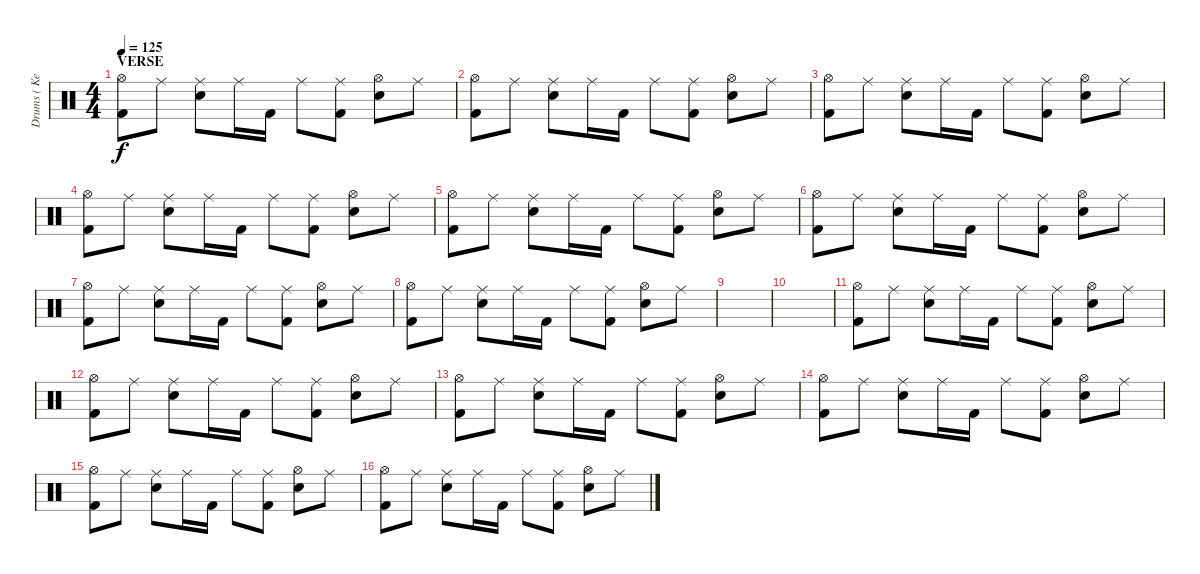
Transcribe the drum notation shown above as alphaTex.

\track ("Drums ( Ken Jay )" "Drums ( Ke") {instrument percussion}
\staff {score}
\articulation defaults
\ts (4 4)
\section ("" "VERSE")
\tempo 125
\clef neutral
\ks c
("Hi-Hat (open)" "Kick (hit) 2").8{dy f} "Ride (middle)".8 ("Ride (middle)" "Snare (hit) 2").8 "Ride (middle)".16 "Kick (hit) 2".16 "Ride (middle)".8 ("Ride (middle)" "Kick (hit) 2").8 ("Hi-Hat (open)" "Snare (hit) 2").8 "Ride (middle)".8 |
("Hi-Hat (open)" "Kick (hit) 2").8 "Ride (middle)".8 ("Ride (middle)" "Snare (hit) 2").8 "Ride (middle)".16 "Kick (hit) 2".16 "Ride (middle)".8 ("Ride (middle)" "Kick (hit) 2").8 ("Hi-Hat (open)" "Snare (hit) 2").8 "Ride (middle)".8 |
("Hi-Hat (open)" "Kick (hit) 2").8 "Ride (middle)".8 ("Ride (middle)" "Snare (hit) 2").8 "Ride (middle)".16 "Kick (hit) 2".16 "Ride (middle)".8 ("Ride (middle)" "Kick (hit) 2").8 ("Hi-Hat (open)" "Snare (hit) 2").8 "Ride (middle)".8 |
("Hi-Hat (open)" "Kick (hit) 2").8 "Ride (middle)".8 ("Ride (middle)" "Snare (hit) 2").8 "Ride (middle)".16 "Kick (hit) 2".16 "Ride (middle)".8 ("Ride (middle)" "Kick (hit) 2").8 ("Hi-Hat (open)" "Snare (hit) 2").8 "Ride (middle)".8 |
("Hi-Hat (open)" "Kick (hit) 2").8 "Ride (middle)".8 ("Ride (middle)" "Snare (hit) 2").8 "Ride (middle)".16 "Kick (hit) 2".16 "Ride (middle)".8 ("Ride (middle)" "Kick (hit) 2").8 ("Hi-Hat (open)" "Snare (hit) 2").8 "Ride (middle)".8 |
("Hi-Hat (open)" "Kick (hit) 2").8 "Ride (middle)".8 ("Ride (middle)" "Snare (hit) 2").8 "Ride (middle)".16 "Kick (hit) 2".16 "Ride (middle)".8 ("Ride (middle)" "Kick (hit) 2").8 ("Hi-Hat (open)" "Snare (hit) 2").8 "Ride (middle)".8 |
("Hi-Hat (open)" "Kick (hit) 2").8 "Ride (middle)".8 ("Ride (middle)" "Snare (hit) 2").8 "Ride (middle)".16 "Kick (hit) 2".16 "Ride (middle)".8 ("Ride (middle)" "Kick (hit) 2").8 ("Hi-Hat (open)" "Snare (hit) 2").8 "Ride (middle)".8 |
("Hi-Hat (open)" "Kick (hit) 2").8 "Ride (middle)".8 ("Ride (middle)" "Snare (hit) 2").8 "Ride (middle)".16 "Kick (hit) 2".16 "Ride (middle)".8 ("Ride (middle)" "Kick (hit) 2").8 ("Hi-Hat (open)" "Snare (hit) 2").8 "Ride (middle)".8 |
|
|
("Hi-Hat (open)" "Kick (hit) 2").8 "Ride (middle)".8 ("Ride (middle)" "Snare (hit) 2").8 "Ride (middle)".16 "Kick (hit) 2".16 "Ride (middle)".8 ("Ride (middle)" "Kick (hit) 2").8 ("Hi-Hat (open)" "Snare (hit) 2").8 "Ride (middle)".8 |
("Hi-Hat (open)" "Kick (hit) 2").8 "Ride (middle)".8 ("Ride (middle)" "Snare (hit) 2").8 "Ride (middle)".16 "Kick (hit) 2".16 "Ride (middle)".8 ("Ride (middle)" "Kick (hit) 2").8 ("Hi-Hat (open)" "Snare (hit) 2").8 "Ride (middle)".8 |
("Hi-Hat (open)" "Kick (hit) 2").8 "Ride (middle)".8 ("Ride (middle)" "Snare (hit) 2").8 "Ride (middle)".16 "Kick (hit) 2".16 "Ride (middle)".8 ("Ride (middle)" "Kick (hit) 2").8 ("Hi-Hat (open)" "Snare (hit) 2").8 "Ride (middle)".8 |
("Hi-Hat (open)" "Kick (hit) 2").8 "Ride (middle)".8 ("Ride (middle)" "Snare (hit) 2").8 "Ride (middle)".16 "Kick (hit) 2".16 "Ride (middle)".8 ("Ride (middle)" "Kick (hit) 2").8 ("Hi-Hat (open)" "Snare (hit) 2").8 "Ride (middle)".8 |
("Hi-Hat (open)" "Kick (hit) 2").8 "Ride (middle)".8 ("Ride (middle)" "Snare (hit) 2").8 "Ride (middle)".16 "Kick (hit) 2".16 "Ride (middle)".8 ("Ride (middle)" "Kick (hit) 2").8 ("Hi-Hat (open)" "Snare (hit) 2").8 "Ride (middle)".8 |
("Hi-Hat (open)" "Kick (hit) 2").8 "Ride (middle)".8 ("Ride (middle)" "Snare (hit) 2").8 "Ride (middle)".16 "Kick (hit) 2".16 "Ride (middle)".8 ("Ride (middle)" "Kick (hit) 2").8 ("Hi-Hat (open)" "Snare (hit) 2").8 "Ride (middle)".8
